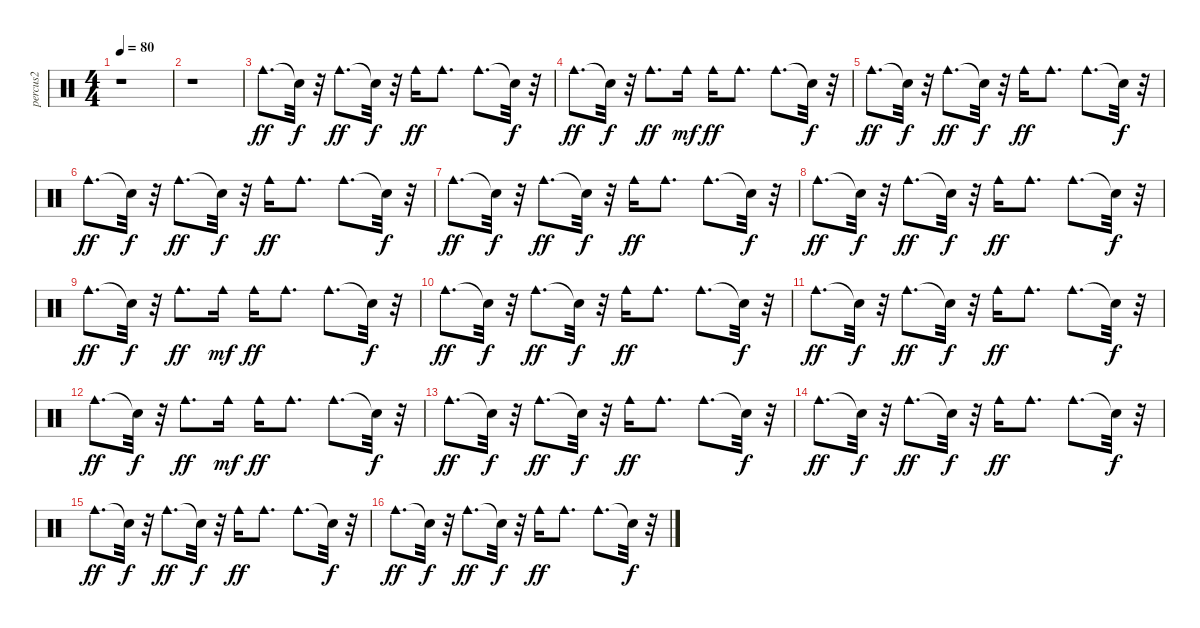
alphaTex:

\track ("percus2" "percus2") {instrument percussion}
\staff {score}
\articulation defaults
\ts (4 4)
\tempo 80
\clef neutral
\ks c
r.1{dy ff} |
r.1 |
"Cowbell medium (hit)".8{d} "Snare (hit)"{t}.32{dy f} r.32 "Cowbell medium (hit)".8{d dy ff} "Snare (hit)"{t}.32{dy f} r.32 "Cowbell medium (hit)".16{dy ff} "Cowbell medium (hit)".8{d} "Cowbell medium (hit)".8{d} "Snare (hit)"{t}.32{dy f} r.32 |
"Cowbell medium (hit)".8{d dy ff} "Snare (hit)"{t}.32{dy f} r.32 "Cowbell medium (hit)".8{d dy ff} "Cowbell medium (hit)".16{dy mf} "Cowbell medium (hit)".16{dy ff} "Cowbell medium (hit)".8{d} "Cowbell medium (hit)".8{d} "Snare (hit)"{t}.32{dy f} r.32 |
"Cowbell medium (hit)".8{d dy ff} "Snare (hit)"{t}.32{dy f} r.32 "Cowbell medium (hit)".8{d dy ff} "Snare (hit)"{t}.32{dy f} r.32 "Cowbell medium (hit)".16{dy ff} "Cowbell medium (hit)".8{d} "Cowbell medium (hit)".8{d} "Snare (hit)"{t}.32{dy f} r.32 |
"Cowbell medium (hit)".8{d dy ff} "Snare (hit)"{t}.32{dy f} r.32 "Cowbell medium (hit)".8{d dy ff} "Snare (hit)"{t}.32{dy f} r.32 "Cowbell medium (hit)".16{dy ff} "Cowbell medium (hit)".8{d} "Cowbell medium (hit)".8{d} "Snare (hit)"{t}.32{dy f} r.32 |
"Cowbell medium (hit)".8{d dy ff} "Snare (hit)"{t}.32{dy f} r.32 "Cowbell medium (hit)".8{d dy ff} "Snare (hit)"{t}.32{dy f} r.32 "Cowbell medium (hit)".16{dy ff} "Cowbell medium (hit)".8{d} "Cowbell medium (hit)".8{d} "Snare (hit)"{t}.32{dy f} r.32 |
"Cowbell medium (hit)".8{d dy ff} "Snare (hit)"{t}.32{dy f} r.32 "Cowbell medium (hit)".8{d dy ff} "Snare (hit)"{t}.32{dy f} r.32 "Cowbell medium (hit)".16{dy ff} "Cowbell medium (hit)".8{d} "Cowbell medium (hit)".8{d} "Snare (hit)"{t}.32{dy f} r.32 |
"Cowbell medium (hit)".8{d dy ff} "Snare (hit)"{t}.32{dy f} r.32 "Cowbell medium (hit)".8{d dy ff} "Cowbell medium (hit)".16{dy mf} "Cowbell medium (hit)".16{dy ff} "Cowbell medium (hit)".8{d} "Cowbell medium (hit)".8{d} "Snare (hit)"{t}.32{dy f} r.32 |
"Cowbell medium (hit)".8{d dy ff} "Snare (hit)"{t}.32{dy f} r.32 "Cowbell medium (hit)".8{d dy ff} "Snare (hit)"{t}.32{dy f} r.32 "Cowbell medium (hit)".16{dy ff} "Cowbell medium (hit)".8{d} "Cowbell medium (hit)".8{d} "Snare (hit)"{t}.32{dy f} r.32 |
"Cowbell medium (hit)".8{d dy ff} "Snare (hit)"{t}.32{dy f} r.32 "Cowbell medium (hit)".8{d dy ff} "Snare (hit)"{t}.32{dy f} r.32 "Cowbell medium (hit)".16{dy ff} "Cowbell medium (hit)".8{d} "Cowbell medium (hit)".8{d} "Snare (hit)"{t}.32{dy f} r.32 |
"Cowbell medium (hit)".8{d dy ff} "Snare (hit)"{t}.32{dy f} r.32 "Cowbell medium (hit)".8{d dy ff} "Cowbell medium (hit)".16{dy mf} "Cowbell medium (hit)".16{dy ff} "Cowbell medium (hit)".8{d} "Cowbell medium (hit)".8{d} "Snare (hit)"{t}.32{dy f} r.32 |
"Cowbell medium (hit)".8{d dy ff} "Snare (hit)"{t}.32{dy f} r.32 "Cowbell medium (hit)".8{d dy ff} "Snare (hit)"{t}.32{dy f} r.32 "Cowbell medium (hit)".16{dy ff} "Cowbell medium (hit)".8{d} "Cowbell medium (hit)".8{d} "Snare (hit)"{t}.32{dy f} r.32 |
"Cowbell medium (hit)".8{d dy ff} "Snare (hit)"{t}.32{dy f} r.32 "Cowbell medium (hit)".8{d dy ff} "Snare (hit)"{t}.32{dy f} r.32 "Cowbell medium (hit)".16{dy ff} "Cowbell medium (hit)".8{d} "Cowbell medium (hit)".8{d} "Snare (hit)"{t}.32{dy f} r.32 |
"Cowbell medium (hit)".8{d dy ff} "Snare (hit)"{t}.32{dy f} r.32 "Cowbell medium (hit)".8{d dy ff} "Snare (hit)"{t}.32{dy f} r.32 "Cowbell medium (hit)".16{dy ff} "Cowbell medium (hit)".8{d} "Cowbell medium (hit)".8{d} "Snare (hit)"{t}.32{dy f} r.32 |
"Cowbell medium (hit)".8{d dy ff} "Snare (hit)"{t}.32{dy f} r.32 "Cowbell medium (hit)".8{d dy ff} "Snare (hit)"{t}.32{dy f} r.32 "Cowbell medium (hit)".16{dy ff} "Cowbell medium (hit)".8{d} "Cowbell medium (hit)".8{d} "Snare (hit)"{t}.32{dy f} r.32
